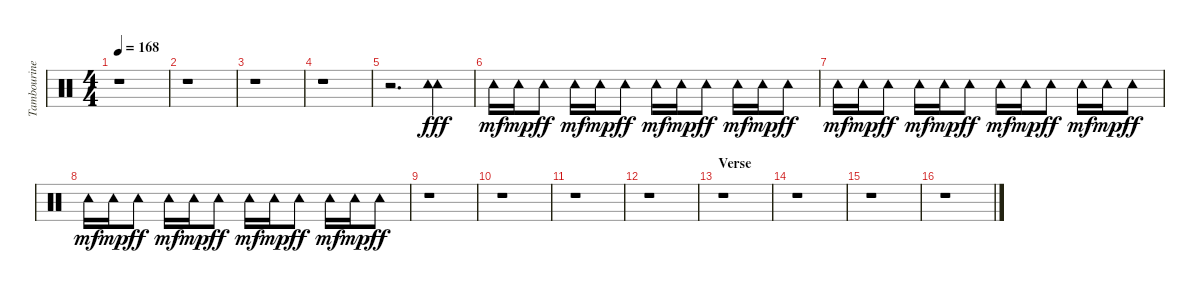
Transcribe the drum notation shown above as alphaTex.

\track ("Tambourine" "Tambourine") {instrument percussion}
\staff {score}
\articulation defaults
\ts (4 4)
\tempo 168
\clef neutral
\ks c
r.1{dy fff} |
r.1 |
r.1 |
r.1 |
r.2{d} ("Tambourine (hit)" "Tambourine (hit)").4 |
"Tambourine (hit)".16{dy mf} "Tambourine (hit)".16{dy mp} "Tambourine (hit)".8{dy ff} "Tambourine (hit)".16{dy mf} "Tambourine (hit)".16{dy mp} "Tambourine (hit)".8{dy ff} "Tambourine (hit)".16{dy mf} "Tambourine (hit)".16{dy mp} "Tambourine (hit)".8{dy ff} "Tambourine (hit)".16{dy mf} "Tambourine (hit)".16{dy mp} "Tambourine (hit)".8{dy ff} |
"Tambourine (hit)".16{dy mf} "Tambourine (hit)".16{dy mp} "Tambourine (hit)".8{dy ff} "Tambourine (hit)".16{dy mf} "Tambourine (hit)".16{dy mp} "Tambourine (hit)".8{dy ff} "Tambourine (hit)".16{dy mf} "Tambourine (hit)".16{dy mp} "Tambourine (hit)".8{dy ff} "Tambourine (hit)".16{dy mf} "Tambourine (hit)".16{dy mp} "Tambourine (hit)".8{dy ff} |
"Tambourine (hit)".16{dy mf} "Tambourine (hit)".16{dy mp} "Tambourine (hit)".8{dy ff} "Tambourine (hit)".16{dy mf} "Tambourine (hit)".16{dy mp} "Tambourine (hit)".8{dy ff} "Tambourine (hit)".16{dy mf} "Tambourine (hit)".16{dy mp} "Tambourine (hit)".8{dy ff} "Tambourine (hit)".16{dy mf} "Tambourine (hit)".16{dy mp} "Tambourine (hit)".8{dy ff} |
r.1 |
r.1 |
r.1 |
r.1 |
\section ("" "Verse")
r.1 |
r.1 |
r.1 |
r.1
